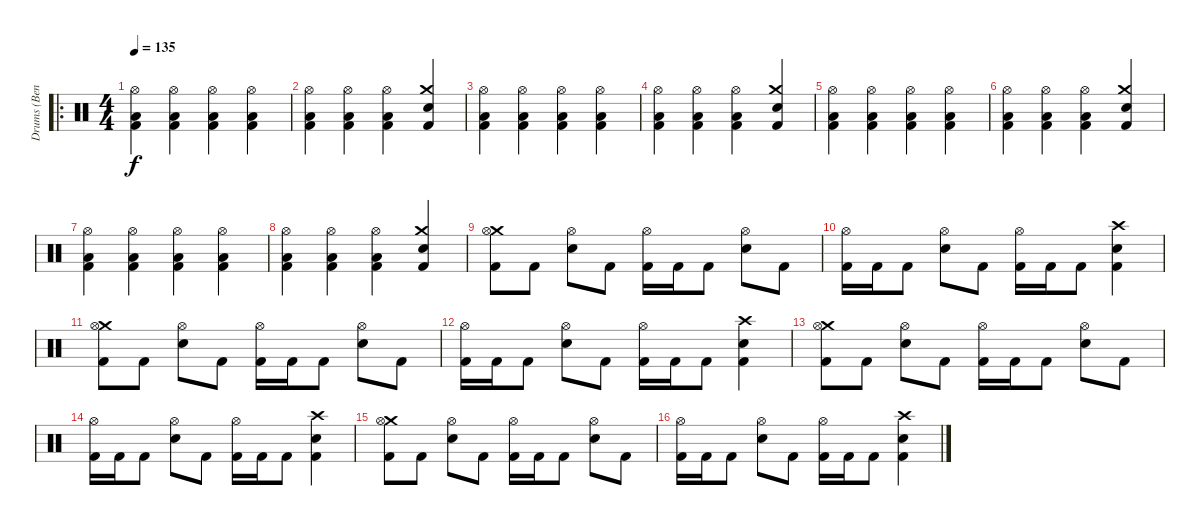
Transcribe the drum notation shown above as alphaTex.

\track ("Drums (Ben)" "Drums (Ben") {instrument percussion}
\staff {score}
\articulation defaults
\ro
\ts (4 4)
\tempo 135
\clef neutral
\ks c
("Hi-Hat (open)" "Low Floor Tom (hit)" "Kick (hit) 2").4{dy f} ("Hi-Hat (open)" "Low Floor Tom (hit)" "Kick (hit) 2").4 ("Hi-Hat (open)" "Low Floor Tom (hit)" "Kick (hit) 2").4 ("Hi-Hat (open)" "Low Floor Tom (hit)" "Kick (hit) 2").4 |
("Hi-Hat (open)" "Low Floor Tom (hit)" "Kick (hit) 2").4 ("Hi-Hat (open)" "Low Floor Tom (hit)" "Kick (hit) 2").4 ("Hi-Hat (open)" "Low Floor Tom (hit)" "Kick (hit) 2").4 ("Crash medium (hit)" "Snare (hit) 2" "Kick (hit) 2").4 |
("Hi-Hat (open)" "Low Floor Tom (hit)" "Kick (hit) 2").4 ("Hi-Hat (open)" "Low Floor Tom (hit)" "Kick (hit) 2").4 ("Hi-Hat (open)" "Low Floor Tom (hit)" "Kick (hit) 2").4 ("Hi-Hat (open)" "Low Floor Tom (hit)" "Kick (hit) 2").4 |
("Hi-Hat (open)" "Low Floor Tom (hit)" "Kick (hit) 2").4 ("Hi-Hat (open)" "Low Floor Tom (hit)" "Kick (hit) 2").4 ("Hi-Hat (open)" "Low Floor Tom (hit)" "Kick (hit) 2").4 ("Crash medium (hit)" "Snare (hit) 2" "Kick (hit) 2").4 |
("Hi-Hat (open)" "Low Floor Tom (hit)" "Kick (hit) 2").4 ("Hi-Hat (open)" "Low Floor Tom (hit)" "Kick (hit) 2").4 ("Hi-Hat (open)" "Low Floor Tom (hit)" "Kick (hit) 2").4 ("Hi-Hat (open)" "Low Floor Tom (hit)" "Kick (hit) 2").4 |
("Hi-Hat (open)" "Low Floor Tom (hit)" "Kick (hit) 2").4 ("Hi-Hat (open)" "Low Floor Tom (hit)" "Kick (hit) 2").4 ("Hi-Hat (open)" "Low Floor Tom (hit)" "Kick (hit) 2").4 ("Crash medium (hit)" "Snare (hit) 2" "Kick (hit) 2").4 |
("Hi-Hat (open)" "Low Floor Tom (hit)" "Kick (hit) 2").4 ("Hi-Hat (open)" "Low Floor Tom (hit)" "Kick (hit) 2").4 ("Hi-Hat (open)" "Low Floor Tom (hit)" "Kick (hit) 2").4 ("Hi-Hat (open)" "Low Floor Tom (hit)" "Kick (hit) 2").4 |
("Hi-Hat (open)" "Low Floor Tom (hit)" "Kick (hit) 2").4 ("Hi-Hat (open)" "Low Floor Tom (hit)" "Kick (hit) 2").4 ("Hi-Hat (open)" "Low Floor Tom (hit)" "Kick (hit) 2").4 ("Crash medium (hit)" "Snare (hit) 2" "Kick (hit) 2").4 |
("Crash medium (hit)" "Hi-Hat (open)" "Kick (hit) 2").8 "Kick (hit) 2".8 ("Hi-Hat (open)" "Snare (hit) 2").8 "Kick (hit) 2".8 ("Hi-Hat (open)" "Kick (hit) 2").16 "Kick (hit) 2".16 "Kick (hit) 2".8 ("Hi-Hat (open)" "Snare (hit) 2").8 "Kick (hit) 2".8 |
("Hi-Hat (open)" "Kick (hit) 2").16 "Kick (hit) 2".16 "Kick (hit) 2".8 ("Hi-Hat (open)" "Snare (hit) 2").8 "Kick (hit) 2".8 ("Hi-Hat (open)" "Kick (hit) 2").16 "Kick (hit) 2".16 "Kick (hit) 2".8 ("Crash high (hit)" "Snare (hit) 2" "Kick (hit) 2").4 |
("Crash medium (hit)" "Hi-Hat (open)" "Kick (hit) 2").8 "Kick (hit) 2".8 ("Hi-Hat (open)" "Snare (hit) 2").8 "Kick (hit) 2".8 ("Hi-Hat (open)" "Kick (hit) 2").16 "Kick (hit) 2".16 "Kick (hit) 2".8 ("Hi-Hat (open)" "Snare (hit) 2").8 "Kick (hit) 2".8 |
("Hi-Hat (open)" "Kick (hit) 2").16 "Kick (hit) 2".16 "Kick (hit) 2".8 ("Hi-Hat (open)" "Snare (hit) 2").8 "Kick (hit) 2".8 ("Hi-Hat (open)" "Kick (hit) 2").16 "Kick (hit) 2".16 "Kick (hit) 2".8 ("Crash high (hit)" "Snare (hit) 2" "Kick (hit) 2").4 |
("Crash medium (hit)" "Hi-Hat (open)" "Kick (hit) 2").8 "Kick (hit) 2".8 ("Hi-Hat (open)" "Snare (hit) 2").8 "Kick (hit) 2".8 ("Hi-Hat (open)" "Kick (hit) 2").16 "Kick (hit) 2".16 "Kick (hit) 2".8 ("Hi-Hat (open)" "Snare (hit) 2").8 "Kick (hit) 2".8 |
("Hi-Hat (open)" "Kick (hit) 2").16 "Kick (hit) 2".16 "Kick (hit) 2".8 ("Hi-Hat (open)" "Snare (hit) 2").8 "Kick (hit) 2".8 ("Hi-Hat (open)" "Kick (hit) 2").16 "Kick (hit) 2".16 "Kick (hit) 2".8 ("Crash high (hit)" "Snare (hit) 2" "Kick (hit) 2").4 |
("Crash medium (hit)" "Hi-Hat (open)" "Kick (hit) 2").8 "Kick (hit) 2".8 ("Hi-Hat (open)" "Snare (hit) 2").8 "Kick (hit) 2".8 ("Hi-Hat (open)" "Kick (hit) 2").16 "Kick (hit) 2".16 "Kick (hit) 2".8 ("Hi-Hat (open)" "Snare (hit) 2").8 "Kick (hit) 2".8 |
("Hi-Hat (open)" "Kick (hit) 2").16 "Kick (hit) 2".16 "Kick (hit) 2".8 ("Hi-Hat (open)" "Snare (hit) 2").8 "Kick (hit) 2".8 ("Hi-Hat (open)" "Kick (hit) 2").16 "Kick (hit) 2".16 "Kick (hit) 2".8 ("Crash high (hit)" "Snare (hit) 2" "Kick (hit) 2").4
